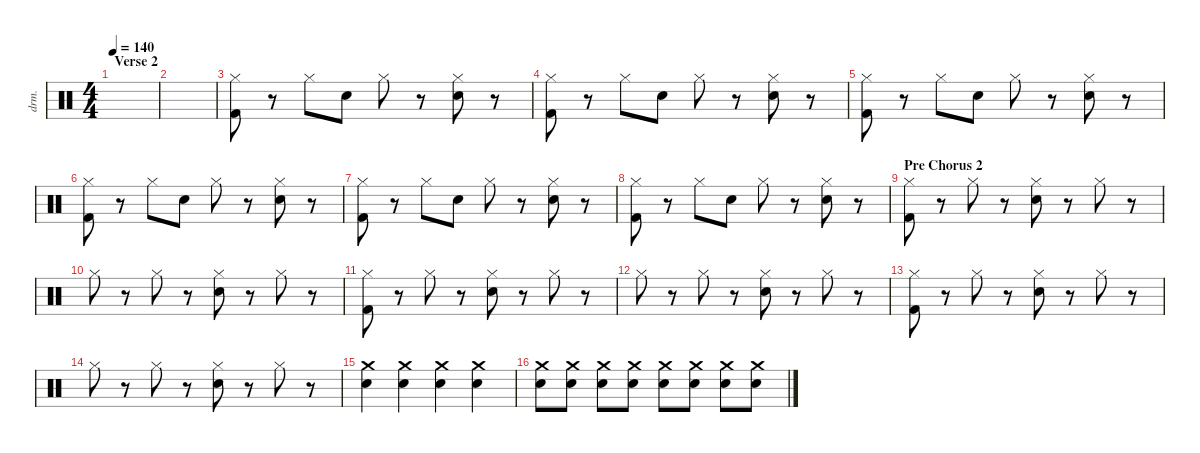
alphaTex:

\defaultSystemsLayout 4
\hideDynamics
\bracketExtendMode nobrackets
\otherSystemsTrackNameOrientation horizontal
\track ("Drumkit" "drm.") {instrument percussion}
\staff {score}
\articulation defaults
\ts (4 4)
\section ("" "Verse 2")
\tempo 140
\clef neutral
\ks c
|
|
("Kick (hit) 2" "Hi-Hat (closed)").8{beam Down} r.8{beam Down} "Hi-Hat (closed)".8{beam Down} "Snare (hit) 2".8{beam Down} "Hi-Hat (closed)".8{beam Down} r.8{beam Down} ("Snare (hit) 2" "Hi-Hat (closed)").8{beam Down} r.8{beam Down} |
("Kick (hit) 2" "Hi-Hat (closed)").8{beam Down} r.8{beam Down} "Hi-Hat (closed)".8{beam Down} "Snare (hit) 2".8{beam Down} "Hi-Hat (closed)".8{beam Down} r.8{beam Down} ("Snare (hit) 2" "Hi-Hat (closed)").8{beam Down} r.8{beam Down} |
("Kick (hit) 2" "Hi-Hat (closed)").8{beam Down} r.8{beam Down} "Hi-Hat (closed)".8{beam Down} "Snare (hit) 2".8{beam Down} "Hi-Hat (closed)".8{beam Down} r.8{beam Down} ("Snare (hit) 2" "Hi-Hat (closed)").8{beam Down} r.8{beam Down} |
("Kick (hit) 2" "Hi-Hat (closed)").8{beam Down} r.8{beam Down} "Hi-Hat (closed)".8{beam Down} "Snare (hit) 2".8{beam Down} "Hi-Hat (closed)".8{beam Down} r.8{beam Down} ("Snare (hit) 2" "Hi-Hat (closed)").8{beam Down} r.8{beam Down} |
("Kick (hit) 2" "Hi-Hat (closed)").8{beam Down} r.8{beam Down} "Hi-Hat (closed)".8{beam Down} "Snare (hit) 2".8{beam Down} "Hi-Hat (closed)".8{beam Down} r.8{beam Down} ("Snare (hit) 2" "Hi-Hat (closed)").8{beam Down} r.8{beam Down} |
("Kick (hit) 2" "Hi-Hat (closed)").8{beam Down} r.8{beam Down} "Hi-Hat (closed)".8{beam Down} "Snare (hit) 2".8{beam Down} "Hi-Hat (closed)".8{beam Down} r.8{beam Down} ("Snare (hit) 2" "Hi-Hat (closed)").8{beam Down} r.8{beam Down} |
\section ("" "Pre Chorus 2")
("Kick (hit) 2" "Hi-Hat (closed)").8{beam Down} r.8{beam Down} "Hi-Hat (closed)".8{beam Down} r.8{beam Down} ("Hi-Hat (closed)" "Snare (hit) 2").8{beam Down} r.8{beam Down} "Hi-Hat (closed)".8{beam Down} r.8{beam Down} |
"Hi-Hat (closed)".8{beam Down} r.8{beam Down} "Hi-Hat (closed)".8{beam Down} r.8{beam Down} ("Hi-Hat (closed)" "Snare (hit) 2").8{beam Down} r.8{beam Down} "Hi-Hat (closed)".8{beam Down} r.8{beam Down} |
("Kick (hit) 2" "Hi-Hat (closed)").8{beam Down} r.8{beam Down} "Hi-Hat (closed)".8{beam Down} r.8{beam Down} ("Hi-Hat (closed)" "Snare (hit) 2").8{beam Down} r.8{beam Down} "Hi-Hat (closed)".8{beam Down} r.8{beam Down} |
"Hi-Hat (closed)".8{beam Down} r.8{beam Down} "Hi-Hat (closed)".8{beam Down} r.8{beam Down} ("Hi-Hat (closed)" "Snare (hit) 2").8{beam Down} r.8{beam Down} "Hi-Hat (closed)".8{beam Down} r.8{beam Down} |
("Kick (hit) 2" "Hi-Hat (closed)").8{beam Down} r.8{beam Down} "Hi-Hat (closed)".8{beam Down} r.8{beam Down} ("Hi-Hat (closed)" "Snare (hit) 2").8{beam Down} r.8{beam Down} "Hi-Hat (closed)".8{beam Down} r.8{beam Down} |
"Hi-Hat (closed)".8{beam Down} r.8{beam Down} "Hi-Hat (closed)".8{beam Down} r.8{beam Down} ("Hi-Hat (closed)" "Snare (hit) 2").8{beam Down} r.8{beam Down} "Hi-Hat (closed)".8{beam Down} r.8{beam Down} |
("Snare (hit) 2" "Crash medium (hit)").4{beam Down} ("Snare (hit) 2" "Crash medium (hit)").4{beam Down} ("Snare (hit) 2" "Crash medium (hit)").4{beam Down} ("Snare (hit) 2" "Crash medium (hit)").4{beam Down} |
("Snare (hit) 2" "Crash medium (hit)").8{beam Down} ("Snare (hit) 2" "Crash medium (hit)").8{beam Down} ("Snare (hit) 2" "Crash medium (hit)").8{beam Down} ("Snare (hit) 2" "Crash medium (hit)").8{beam Down} ("Snare (hit) 2" "Crash medium (hit)").8{beam Down} ("Snare (hit) 2" "Crash medium (hit)").8{beam Down} ("Snare (hit) 2" "Crash medium (hit)").8{beam Down} ("Snare (hit) 2" "Crash medium (hit)").8{beam Down}
